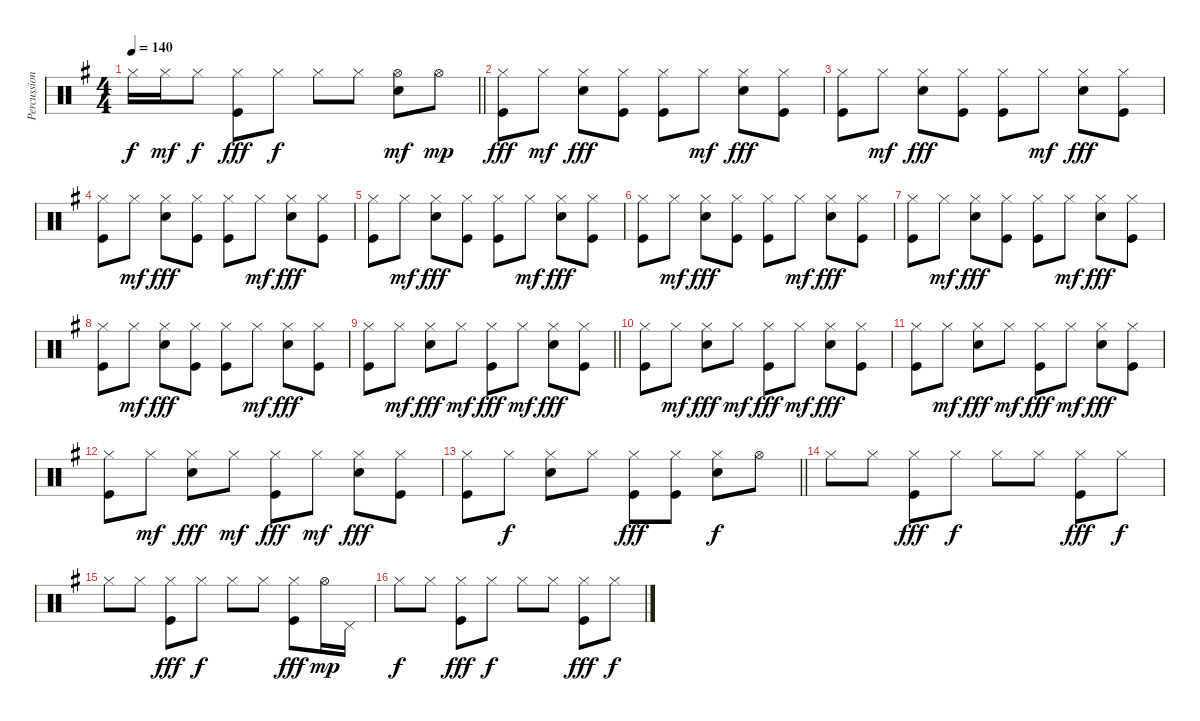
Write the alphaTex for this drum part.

\track ("Percussioni" "Percussion") {instrument percussion}
\staff {score}
\articulation defaults
\ts (4 4)
\tempo 140
\clef neutral
\barLineRight lightlight
\ks eminor "Hi-Hat (closed)".16{dy f} "Hi-Hat (closed)".16{dy mf} "Hi-Hat (closed)".8{dy f}
("Hi-Hat (closed)" "Kick (hit)").8{dy fff} "Hi-Hat (closed)".8{dy f} "Hi-Hat (closed)".8 "Hi-Hat (closed)".8 ("Hi-Hat (open)" "Electric Snare (hit)").8{dy mf} "Hi-Hat (open)".8{dy mp} |
\section ("" "")
("Hi-Hat (closed)" "Kick (hit)").8{dy fff} "Hi-Hat (closed)".8{dy mf} ("Hi-Hat (closed)" "Electric Snare (hit)").8{dy fff} ("Hi-Hat (closed)" "Kick (hit)").8 ("Hi-Hat (closed)" "Kick (hit)").8 "Hi-Hat (closed)".8{dy mf} ("Hi-Hat (closed)" "Electric Snare (hit)").8{dy fff} ("Hi-Hat (closed)" "Kick (hit)").8 |
("Hi-Hat (closed)" "Kick (hit)").8 "Hi-Hat (closed)".8{dy mf} ("Hi-Hat (closed)" "Electric Snare (hit)").8{dy fff} ("Hi-Hat (closed)" "Kick (hit)").8 ("Hi-Hat (closed)" "Kick (hit)").8 "Hi-Hat (closed)".8{dy mf} ("Hi-Hat (closed)" "Electric Snare (hit)").8{dy fff} ("Hi-Hat (closed)" "Kick (hit)").8 |
("Hi-Hat (closed)" "Kick (hit)").8 "Hi-Hat (closed)".8{dy mf} ("Hi-Hat (closed)" "Electric Snare (hit)").8{dy fff} ("Hi-Hat (closed)" "Kick (hit)").8 ("Hi-Hat (closed)" "Kick (hit)").8 "Hi-Hat (closed)".8{dy mf} ("Hi-Hat (closed)" "Electric Snare (hit)").8{dy fff} ("Hi-Hat (closed)" "Kick (hit)").8 |
("Hi-Hat (closed)" "Kick (hit)").8 "Hi-Hat (closed)".8{dy mf} ("Hi-Hat (closed)" "Electric Snare (hit)").8{dy fff} ("Hi-Hat (closed)" "Kick (hit)").8 ("Hi-Hat (closed)" "Kick (hit)").8 "Hi-Hat (closed)".8{dy mf} ("Hi-Hat (closed)" "Electric Snare (hit)").8{dy fff} ("Hi-Hat (closed)" "Kick (hit)").8 |
("Hi-Hat (closed)" "Kick (hit)").8 "Hi-Hat (closed)".8{dy mf} ("Hi-Hat (closed)" "Electric Snare (hit)").8{dy fff} ("Hi-Hat (closed)" "Kick (hit)").8 ("Hi-Hat (closed)" "Kick (hit)").8 "Hi-Hat (closed)".8{dy mf} ("Hi-Hat (closed)" "Electric Snare (hit)").8{dy fff} ("Hi-Hat (closed)" "Kick (hit)").8 |
("Hi-Hat (closed)" "Kick (hit)").8 "Hi-Hat (closed)".8{dy mf} ("Hi-Hat (closed)" "Electric Snare (hit)").8{dy fff} ("Hi-Hat (closed)" "Kick (hit)").8 ("Hi-Hat (closed)" "Kick (hit)").8 "Hi-Hat (closed)".8{dy mf} ("Hi-Hat (closed)" "Electric Snare (hit)").8{dy fff} ("Hi-Hat (closed)" "Kick (hit)").8 |
("Hi-Hat (closed)" "Kick (hit)").8 "Hi-Hat (closed)".8{dy mf} ("Hi-Hat (closed)" "Electric Snare (hit)").8{dy fff} ("Hi-Hat (closed)" "Kick (hit)").8 ("Hi-Hat (closed)" "Kick (hit)").8 "Hi-Hat (closed)".8{dy mf} ("Hi-Hat (closed)" "Electric Snare (hit)").8{dy fff} ("Hi-Hat (closed)" "Kick (hit)").8 |
\barLineRight lightlight
("Hi-Hat (closed)" "Kick (hit)").8 "Hi-Hat (closed)".8{dy mf} ("Hi-Hat (closed)" "Electric Snare (hit)").8{dy fff} "Hi-Hat (closed)".8{dy mf} ("Hi-Hat (closed)" "Kick (hit)").8{dy fff} "Hi-Hat (closed)".8{dy mf} ("Hi-Hat (closed)" "Electric Snare (hit)").8{dy fff} ("Hi-Hat (closed)" "Kick (hit)").8 |
\section ("" "")
("Hi-Hat (closed)" "Kick (hit)").8 "Hi-Hat (closed)".8{dy mf} ("Hi-Hat (closed)" "Electric Snare (hit)").8{dy fff} "Hi-Hat (closed)".8{dy mf} ("Hi-Hat (closed)" "Kick (hit)").8{dy fff} "Hi-Hat (closed)".8{dy mf} ("Hi-Hat (closed)" "Electric Snare (hit)").8{dy fff} ("Hi-Hat (closed)" "Kick (hit)").8 |
("Hi-Hat (closed)" "Kick (hit)").8 "Hi-Hat (closed)".8{dy mf} ("Hi-Hat (closed)" "Electric Snare (hit)").8{dy fff} "Hi-Hat (closed)".8{dy mf} ("Hi-Hat (closed)" "Kick (hit)").8{dy fff} "Hi-Hat (closed)".8{dy mf} ("Hi-Hat (closed)" "Electric Snare (hit)").8{dy fff} ("Hi-Hat (closed)" "Kick (hit)").8 |
("Hi-Hat (closed)" "Kick (hit)").8 "Hi-Hat (closed)".8{dy mf} ("Hi-Hat (closed)" "Electric Snare (hit)").8{dy fff} "Hi-Hat (closed)".8{dy mf} ("Hi-Hat (closed)" "Kick (hit)").8{dy fff} "Hi-Hat (closed)".8{dy mf} ("Hi-Hat (closed)" "Electric Snare (hit)").8{dy fff} ("Hi-Hat (closed)" "Kick (hit)").8 |
\barLineRight lightlight
("Hi-Hat (closed)" "Kick (hit)").8 "Hi-Hat (closed)".8{dy f} ("Hi-Hat (closed)" "Electric Snare (hit)").8 "Hi-Hat (closed)".8 ("Hi-Hat (closed)" "Kick (hit)").8{dy fff} ("Hi-Hat (closed)" "Kick (hit)").8 ("Hi-Hat (closed)" "Electric Snare (hit)").8{dy f} "Hi-Hat (open)".8 |
\section ("" "")
"Hi-Hat (closed)".8 "Hi-Hat (closed)".8 ("Hi-Hat (closed)" "Kick (hit)").8{dy fff} "Hi-Hat (closed)".8{dy f} "Hi-Hat (closed)".8 "Hi-Hat (closed)".8 ("Hi-Hat (closed)" "Kick (hit)").8{dy fff} "Hi-Hat (closed)".8{dy f} |
"Hi-Hat (closed)".8 "Hi-Hat (closed)".8 ("Hi-Hat (closed)" "Kick (hit)").8{dy fff} "Hi-Hat (closed)".8{dy f} "Hi-Hat (closed)".8 "Hi-Hat (closed)".8 ("Hi-Hat (closed)" "Kick (hit)").8{dy fff} "Hi-Hat (open)".16{dy mp} "Pedal Hi-Hat (hit)".16 |
"Hi-Hat (closed)".8{dy f} "Hi-Hat (closed)".8 ("Hi-Hat (closed)" "Kick (hit)").8{dy fff} "Hi-Hat (closed)".8{dy f} "Hi-Hat (closed)".8 "Hi-Hat (closed)".8 ("Hi-Hat (closed)" "Kick (hit)").8{dy fff} "Hi-Hat (closed)".8{dy f}
